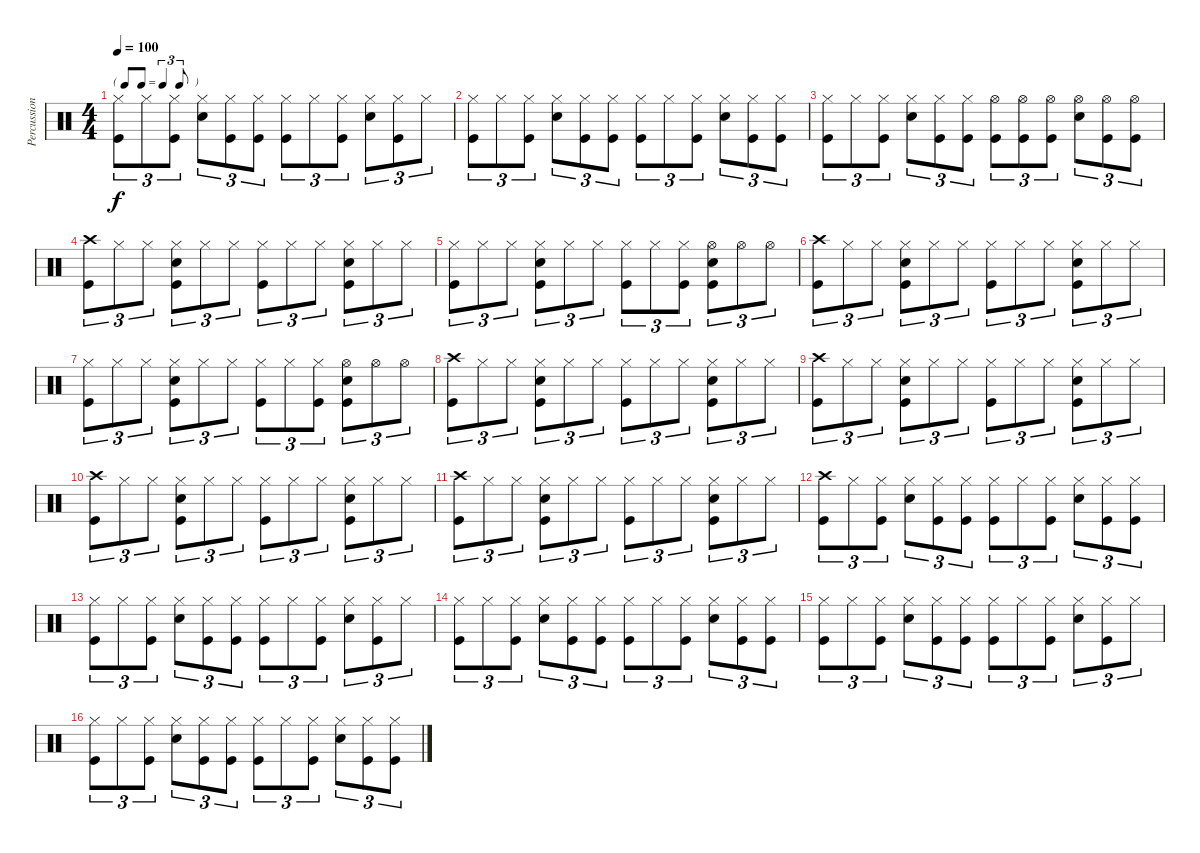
\track ("Percussions" "Percussion") {instrument percussion}
\staff {score}
\articulation defaults
\ts (4 4)
\tf triplet8th
\tempo 100
\clef neutral
\ks c
("Hi-Hat (closed)" "Kick (hit)").8{tu (3 2) dy f} "Hi-Hat (closed)".8{tu (3 2)} ("Hi-Hat (closed)" "Kick (hit)").8{tu (3 2)} ("Hi-Hat (closed)" "Snare (hit) 2").8{tu (3 2)} ("Hi-Hat (closed)" "Kick (hit)").8{tu (3 2)} ("Hi-Hat (closed)" "Kick (hit)").8{tu (3 2)} ("Hi-Hat (closed)" "Kick (hit)").8{tu (3 2)} "Hi-Hat (closed)".8{tu (3 2)} ("Hi-Hat (closed)" "Kick (hit)").8{tu (3 2)} ("Hi-Hat (closed)" "Snare (hit) 2").8{tu (3 2)} ("Hi-Hat (closed)" "Kick (hit)").8{tu (3 2)} "Hi-Hat (closed)".8{tu (3 2)} |
("Hi-Hat (closed)" "Kick (hit)").8{tu (3 2)} "Hi-Hat (closed)".8{tu (3 2)} ("Hi-Hat (closed)" "Kick (hit)").8{tu (3 2)} ("Hi-Hat (closed)" "Snare (hit) 2").8{tu (3 2)} ("Hi-Hat (closed)" "Kick (hit)").8{tu (3 2)} ("Hi-Hat (closed)" "Kick (hit)").8{tu (3 2)} ("Hi-Hat (closed)" "Kick (hit)").8{tu (3 2)} "Hi-Hat (closed)".8{tu (3 2)} ("Hi-Hat (closed)" "Kick (hit)").8{tu (3 2)} ("Hi-Hat (closed)" "Snare (hit) 2").8{tu (3 2)} ("Hi-Hat (closed)" "Kick (hit)").8{tu (3 2)} ("Hi-Hat (closed)" "Kick (hit)").8{tu (3 2)} |
("Hi-Hat (closed)" "Kick (hit)").8{tu (3 2)} "Hi-Hat (closed)".8{tu (3 2)} ("Hi-Hat (closed)" "Kick (hit)").8{tu (3 2)} ("Hi-Hat (closed)" "Snare (hit) 2").8{tu (3 2)} ("Hi-Hat (closed)" "Kick (hit)").8{tu (3 2)} ("Hi-Hat (closed)" "Kick (hit)").8{tu (3 2)} ("Hi-Hat (open)" "Kick (hit)").8{tu (3 2)} ("Hi-Hat (open)" "Kick (hit)").8{tu (3 2)} ("Hi-Hat (open)" "Kick (hit)").8{tu (3 2)} ("Hi-Hat (open)" "Snare (hit) 2").8{tu (3 2)} ("Hi-Hat (open)" "Kick (hit)").8{tu (3 2)} ("Hi-Hat (open)" "Kick (hit)").8{tu (3 2)} |
("Crash high (hit)" "Kick (hit)").8{tu (3 2)} "Hi-Hat (closed)".8{tu (3 2)} "Hi-Hat (closed)".8{tu (3 2)} ("Hi-Hat (closed)" "Snare (hit) 2" "Kick (hit)").8{tu (3 2)} "Hi-Hat (closed)".8{tu (3 2)} "Hi-Hat (closed)".8{tu (3 2)} ("Hi-Hat (closed)" "Kick (hit)").8{tu (3 2)} "Hi-Hat (closed)".8{tu (3 2)} "Hi-Hat (closed)".8{tu (3 2)} ("Hi-Hat (closed)" "Snare (hit) 2" "Kick (hit)").8{tu (3 2)} "Hi-Hat (closed)".8{tu (3 2)} "Hi-Hat (closed)".8{tu (3 2)} |
("Hi-Hat (closed)" "Kick (hit)").8{tu (3 2)} "Hi-Hat (closed)".8{tu (3 2)} "Hi-Hat (closed)".8{tu (3 2)} ("Hi-Hat (closed)" "Snare (hit) 2" "Kick (hit)").8{tu (3 2)} "Hi-Hat (closed)".8{tu (3 2)} "Hi-Hat (closed)".8{tu (3 2)} ("Hi-Hat (closed)" "Kick (hit)").8{tu (3 2)} "Hi-Hat (closed)".8{tu (3 2)} ("Hi-Hat (closed)" "Kick (hit)").8{tu (3 2)} ("Hi-Hat (open)" "Snare (hit) 2" "Kick (hit)").8{tu (3 2)} "Hi-Hat (open)".8{tu (3 2)} "Hi-Hat (open)".8{tu (3 2)} |
("Crash high (hit)" "Kick (hit)").8{tu (3 2)} "Hi-Hat (closed)".8{tu (3 2)} "Hi-Hat (closed)".8{tu (3 2)} ("Hi-Hat (closed)" "Snare (hit) 2" "Kick (hit)").8{tu (3 2)} "Hi-Hat (closed)".8{tu (3 2)} "Hi-Hat (closed)".8{tu (3 2)} ("Hi-Hat (closed)" "Kick (hit)").8{tu (3 2)} "Hi-Hat (closed)".8{tu (3 2)} "Hi-Hat (closed)".8{tu (3 2)} ("Hi-Hat (closed)" "Snare (hit) 2" "Kick (hit)").8{tu (3 2)} "Hi-Hat (closed)".8{tu (3 2)} "Hi-Hat (closed)".8{tu (3 2)} |
("Hi-Hat (closed)" "Kick (hit)").8{tu (3 2)} "Hi-Hat (closed)".8{tu (3 2)} "Hi-Hat (closed)".8{tu (3 2)} ("Hi-Hat (closed)" "Snare (hit) 2" "Kick (hit)").8{tu (3 2)} "Hi-Hat (closed)".8{tu (3 2)} "Hi-Hat (closed)".8{tu (3 2)} ("Hi-Hat (closed)" "Kick (hit)").8{tu (3 2)} "Hi-Hat (closed)".8{tu (3 2)} ("Hi-Hat (closed)" "Kick (hit)").8{tu (3 2)} ("Hi-Hat (open)" "Snare (hit) 2" "Kick (hit)").8{tu (3 2)} "Hi-Hat (open)".8{tu (3 2)} "Hi-Hat (open)".8{tu (3 2)} |
("Crash high (hit)" "Kick (hit)").8{tu (3 2)} "Hi-Hat (closed)".8{tu (3 2)} "Hi-Hat (closed)".8{tu (3 2)} ("Hi-Hat (closed)" "Snare (hit) 2" "Kick (hit)").8{tu (3 2)} "Hi-Hat (closed)".8{tu (3 2)} "Hi-Hat (closed)".8{tu (3 2)} ("Hi-Hat (closed)" "Kick (hit)").8{tu (3 2)} "Hi-Hat (closed)".8{tu (3 2)} "Hi-Hat (closed)".8{tu (3 2)} ("Hi-Hat (closed)" "Snare (hit) 2" "Kick (hit)").8{tu (3 2)} "Hi-Hat (closed)".8{tu (3 2)} "Hi-Hat (closed)".8{tu (3 2)} |
("Crash high (hit)" "Kick (hit)").8{tu (3 2)} "Hi-Hat (closed)".8{tu (3 2)} "Hi-Hat (closed)".8{tu (3 2)} ("Hi-Hat (closed)" "Snare (hit) 2" "Kick (hit)").8{tu (3 2)} "Hi-Hat (closed)".8{tu (3 2)} "Hi-Hat (closed)".8{tu (3 2)} ("Hi-Hat (closed)" "Kick (hit)").8{tu (3 2)} "Hi-Hat (closed)".8{tu (3 2)} "Hi-Hat (closed)".8{tu (3 2)} ("Hi-Hat (closed)" "Snare (hit) 2" "Kick (hit)").8{tu (3 2)} "Hi-Hat (closed)".8{tu (3 2)} "Hi-Hat (closed)".8{tu (3 2)} |
("Crash high (hit)" "Kick (hit)").8{tu (3 2)} "Hi-Hat (closed)".8{tu (3 2)} "Hi-Hat (closed)".8{tu (3 2)} ("Hi-Hat (closed)" "Snare (hit) 2" "Kick (hit)").8{tu (3 2)} "Hi-Hat (closed)".8{tu (3 2)} "Hi-Hat (closed)".8{tu (3 2)} ("Hi-Hat (closed)" "Kick (hit)").8{tu (3 2)} "Hi-Hat (closed)".8{tu (3 2)} "Hi-Hat (closed)".8{tu (3 2)} ("Hi-Hat (closed)" "Snare (hit) 2" "Kick (hit)").8{tu (3 2)} "Hi-Hat (closed)".8{tu (3 2)} "Hi-Hat (closed)".8{tu (3 2)} |
("Crash high (hit)" "Kick (hit)").8{tu (3 2)} "Hi-Hat (closed)".8{tu (3 2)} "Hi-Hat (closed)".8{tu (3 2)} ("Hi-Hat (closed)" "Snare (hit) 2" "Kick (hit)").8{tu (3 2)} "Hi-Hat (closed)".8{tu (3 2)} "Hi-Hat (closed)".8{tu (3 2)} ("Hi-Hat (closed)" "Kick (hit)").8{tu (3 2)} "Hi-Hat (closed)".8{tu (3 2)} "Hi-Hat (closed)".8{tu (3 2)} ("Hi-Hat (closed)" "Snare (hit) 2" "Kick (hit)").8{tu (3 2)} "Hi-Hat (closed)".8{tu (3 2)} "Hi-Hat (closed)".8{tu (3 2)} |
("Crash high (hit)" "Kick (hit)").8{tu (3 2)} "Hi-Hat (closed)".8{tu (3 2)} ("Hi-Hat (closed)" "Kick (hit)").8{tu (3 2)} ("Hi-Hat (closed)" "Snare (hit) 2").8{tu (3 2)} ("Hi-Hat (closed)" "Kick (hit)").8{tu (3 2)} ("Hi-Hat (closed)" "Kick (hit)").8{tu (3 2)} ("Hi-Hat (closed)" "Kick (hit)").8{tu (3 2)} "Hi-Hat (closed)".8{tu (3 2)} ("Hi-Hat (closed)" "Kick (hit)").8{tu (3 2)} ("Hi-Hat (closed)" "Snare (hit) 2").8{tu (3 2)} ("Hi-Hat (closed)" "Kick (hit)").8{tu (3 2)} ("Hi-Hat (closed)" "Kick (hit)").8{tu (3 2)} |
("Hi-Hat (closed)" "Kick (hit)").8{tu (3 2)} "Hi-Hat (closed)".8{tu (3 2)} ("Hi-Hat (closed)" "Kick (hit)").8{tu (3 2)} ("Hi-Hat (closed)" "Snare (hit) 2").8{tu (3 2)} ("Hi-Hat (closed)" "Kick (hit)").8{tu (3 2)} ("Hi-Hat (closed)" "Kick (hit)").8{tu (3 2)} ("Hi-Hat (closed)" "Kick (hit)").8{tu (3 2)} "Hi-Hat (closed)".8{tu (3 2)} ("Hi-Hat (closed)" "Kick (hit)").8{tu (3 2)} ("Hi-Hat (closed)" "Snare (hit) 2").8{tu (3 2)} ("Hi-Hat (closed)" "Kick (hit)").8{tu (3 2)} "Hi-Hat (closed)".8{tu (3 2)} |
("Hi-Hat (closed)" "Kick (hit)").8{tu (3 2)} "Hi-Hat (closed)".8{tu (3 2)} ("Hi-Hat (closed)" "Kick (hit)").8{tu (3 2)} ("Hi-Hat (closed)" "Snare (hit) 2").8{tu (3 2)} ("Hi-Hat (closed)" "Kick (hit)").8{tu (3 2)} ("Hi-Hat (closed)" "Kick (hit)").8{tu (3 2)} ("Hi-Hat (closed)" "Kick (hit)").8{tu (3 2)} "Hi-Hat (closed)".8{tu (3 2)} ("Hi-Hat (closed)" "Kick (hit)").8{tu (3 2)} ("Hi-Hat (closed)" "Snare (hit) 2").8{tu (3 2)} ("Hi-Hat (closed)" "Kick (hit)").8{tu (3 2)} ("Hi-Hat (closed)" "Kick (hit)").8{tu (3 2)} |
("Hi-Hat (closed)" "Kick (hit)").8{tu (3 2)} "Hi-Hat (closed)".8{tu (3 2)} ("Hi-Hat (closed)" "Kick (hit)").8{tu (3 2)} ("Hi-Hat (closed)" "Snare (hit) 2").8{tu (3 2)} ("Hi-Hat (closed)" "Kick (hit)").8{tu (3 2)} ("Hi-Hat (closed)" "Kick (hit)").8{tu (3 2)} ("Hi-Hat (closed)" "Kick (hit)").8{tu (3 2)} "Hi-Hat (closed)".8{tu (3 2)} ("Hi-Hat (closed)" "Kick (hit)").8{tu (3 2)} ("Hi-Hat (closed)" "Snare (hit) 2").8{tu (3 2)} ("Hi-Hat (closed)" "Kick (hit)").8{tu (3 2)} "Hi-Hat (closed)".8{tu (3 2)} |
("Hi-Hat (closed)" "Kick (hit)").8{tu (3 2)} "Hi-Hat (closed)".8{tu (3 2)} ("Hi-Hat (closed)" "Kick (hit)").8{tu (3 2)} ("Hi-Hat (closed)" "Snare (hit) 2").8{tu (3 2)} ("Hi-Hat (closed)" "Kick (hit)").8{tu (3 2)} ("Hi-Hat (closed)" "Kick (hit)").8{tu (3 2)} ("Hi-Hat (closed)" "Kick (hit)").8{tu (3 2)} "Hi-Hat (closed)".8{tu (3 2)} ("Hi-Hat (closed)" "Kick (hit)").8{tu (3 2)} ("Hi-Hat (closed)" "Snare (hit) 2").8{tu (3 2)} ("Hi-Hat (closed)" "Kick (hit)").8{tu (3 2)} ("Hi-Hat (closed)" "Kick (hit)").8{tu (3 2)}
